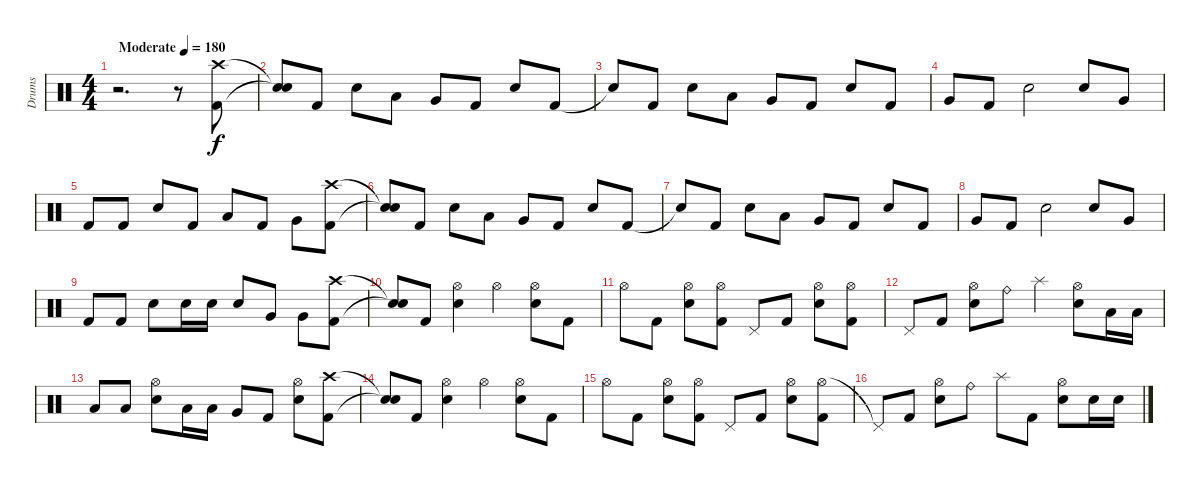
\track ("Drums" "Drums") {instrument percussion}
\staff {score}
\articulation defaults
\ts (4 4)
\tempo (180 "Moderate")
\clef neutral
\ks c
r.2{d dy f} r.8 ("Crash high (hit)" "Kick (hit) 2").8 |
("Snare (hit)"{t} "Snare (hit)"{t}).8 "Kick (hit) 2".8 "Electric Snare (hit)".8 "Low Tom (hit)".8 "Very Low Tom (hit)".8 "Kick (hit) 2".8 "Electric Snare (hit)".8 "Kick (hit) 2".8 |
"Snare (hit)"{t}.8 "Kick (hit) 2".8 "Electric Snare (hit)".8 "Low Tom (hit)".8 "Very Low Tom (hit)".8 "Kick (hit) 2".8 "Electric Snare (hit)".8 "Kick (hit) 2".8 |
"Very Low Tom (hit)".8 "Kick (hit) 2".8 "Electric Snare (hit)".2 "Electric Snare (hit)".8 "Very Low Tom (hit)".8 |
"Kick (hit) 2".8 "Kick (hit) 2".8 "Electric Snare (hit)".8 "Kick (hit) 2".8 "Low Tom (hit)".8 "Kick (hit) 2".8 "Very Low Tom (hit)".8 ("Crash high (hit)" "Kick (hit) 2").8 |
("Snare (hit)"{t} "Snare (hit)"{t}).8 "Kick (hit) 2".8 "Electric Snare (hit)".8 "Low Tom (hit)".8 "Very Low Tom (hit)".8 "Kick (hit) 2".8 "Electric Snare (hit)".8 "Kick (hit) 2".8 |
"Snare (hit)"{t}.8 "Kick (hit) 2".8 "Electric Snare (hit)".8 "Low Tom (hit)".8 "Very Low Tom (hit)".8 "Kick (hit) 2".8 "Electric Snare (hit)".8 "Kick (hit) 2".8 |
"Very Low Tom (hit)".8 "Kick (hit) 2".8 "Electric Snare (hit)".2 "Electric Snare (hit)".8 "Very Low Tom (hit)".8 |
"Kick (hit) 2".8 "Kick (hit) 2".8 "Electric Snare (hit)".8 "Electric Snare (hit)".16 "Electric Snare (hit)".16 "Electric Snare (hit)".8 "Very Low Tom (hit)".8 "Very Low Tom (hit)".8 ("Crash high (hit)" "Kick (hit) 2").8 |
("Snare (hit)"{t} "Snare (hit)"{t}).8 "Kick (hit) 2".8 ("Hi-Hat (open)" "Electric Snare (hit)").4 "Hi-Hat (open)".4 ("Hi-Hat (open)" "Electric Snare (hit)").8 "Kick (hit) 2".8 |
"Hi-Hat (open)".8 "Kick (hit) 2".8 ("Hi-Hat (open)" "Electric Snare (hit)").8 ("Hi-Hat (open)" "Kick (hit) 2").8 "Pedal Hi-Hat (hit)".8 "Kick (hit) 2".8 ("Hi-Hat (open)" "Electric Snare (hit)").8 ("Hi-Hat (open)" "Kick (hit) 2").8 |
"Pedal Hi-Hat (hit)".8 "Kick (hit) 2".8 ("Hi-Hat (open)" "Electric Snare (hit)").8 "Ride (bell)".8 "Splash (hit)".4 ("Hi-Hat (open)" "Electric Snare (hit)").8 "Low Tom (hit)".16 "Low Tom (hit)".16 |
"Low Tom (hit)".8 "Low Tom (hit)".8 ("Hi-Hat (open)" "Electric Snare (hit)").8 "Low Tom (hit)".16 "Low Tom (hit)".16 "Very Low Tom (hit)".8 "Kick (hit) 2".8 ("Hi-Hat (open)" "Electric Snare (hit)").8 ("Crash high (hit)" "Kick (hit) 2").8 |
("Snare (hit)"{t} "Snare (hit)"{t}).8 "Kick (hit) 2".8 ("Hi-Hat (open)" "Electric Snare (hit)").4 "Hi-Hat (open)".4 ("Hi-Hat (open)" "Electric Snare (hit)").8 "Kick (hit) 2".8 |
"Hi-Hat (open)".8 "Kick (hit) 2".8 ("Hi-Hat (open)" "Electric Snare (hit)").8 ("Hi-Hat (open)" "Kick (hit) 2").8 "Pedal Hi-Hat (hit)".8 "Kick (hit) 2".8 ("Hi-Hat (open)" "Electric Snare (hit)").8 ("Hi-Hat (open)" "Kick (hit) 2").8 |
"Pedal Hi-Hat (hit)"{t}.8 "Kick (hit) 2".8 ("Hi-Hat (open)" "Electric Snare (hit)").8 "Ride (bell)".8 "Splash (hit)".8 "Kick (hit) 2".8 ("Hi-Hat (open)" "Electric Snare (hit)").8 "Electric Snare (hit)".16 "Electric Snare (hit)".16
